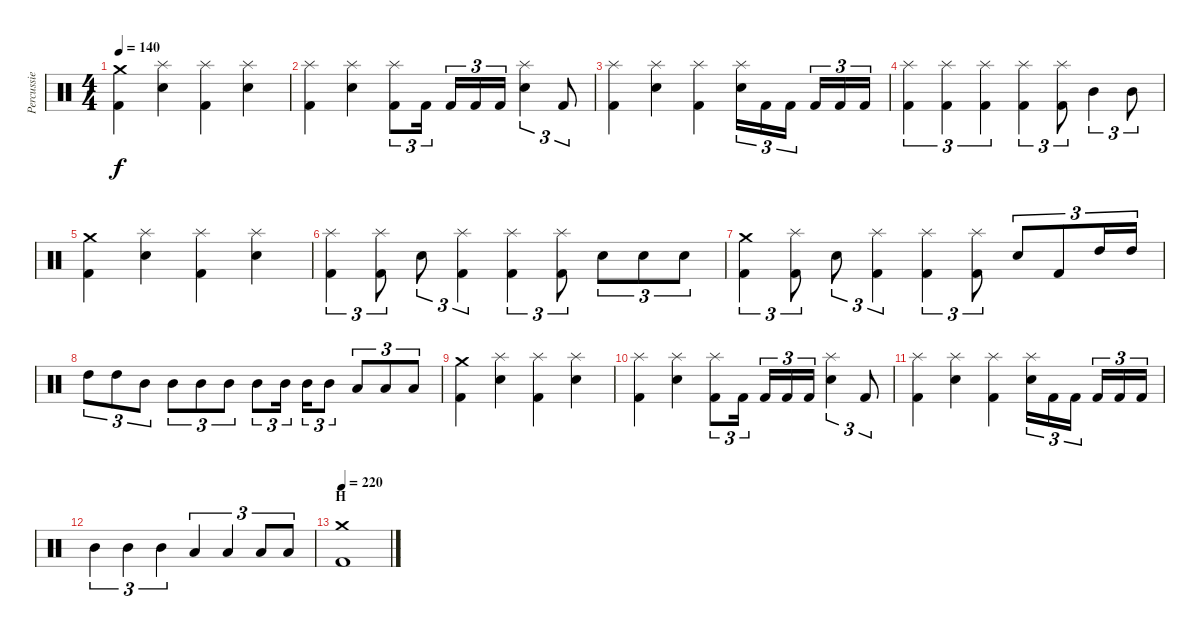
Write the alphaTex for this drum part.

\track ("Percussie" "Percussie") {instrument percussion}
\staff {score}
\articulation defaults
\ts (4 4)
\tempo 140
\clef neutral
\ks c
("Crash medium (hit)" "Kick (hit) 2").4{dy f} ("Splash (hit)" "Electric Snare (hit)").4 ("Splash (hit)" "Kick (hit) 2").4 ("Splash (hit)" "Electric Snare (hit)").4 |
("Splash (hit)" "Kick (hit) 2").4 ("Splash (hit)" "Electric Snare (hit)").4 ("Splash (hit)" "Kick (hit) 2").8{tu (3 2)} "Kick (hit) 2".16{tu (3 2)} "Kick (hit) 2".16{tu (3 2)} "Kick (hit) 2".16{tu (3 2)} "Kick (hit) 2".16{tu (3 2)} ("Splash (hit)" "Electric Snare (hit)").4{tu (3 2)} "Kick (hit) 2".8{tu (3 2)} |
("Splash (hit)" "Kick (hit) 2").4 ("Splash (hit)" "Electric Snare (hit)").4 ("Splash (hit)" "Kick (hit) 2").4 ("Splash (hit)" "Electric Snare (hit)").16{tu (3 2)} "Kick (hit) 2".16{tu (3 2)} "Kick (hit) 2".16{tu (3 2)} "Kick (hit) 2".16{tu (3 2)} "Kick (hit) 2".16{tu (3 2)} "Kick (hit) 2".16{tu (3 2)} |
("Splash (hit)" "Kick (hit) 2").4{tu (3 2)} ("Splash (hit)" "Kick (hit) 2").4{tu (3 2)} ("Splash (hit)" "Kick (hit) 2").4{tu (3 2)} ("Splash (hit)" "Kick (hit) 2").4{tu (3 2)} ("Splash (hit)" "Kick (hit) 2").8{tu (3 2)} "Mid Tom (hit)".4{tu (3 2)} "Mid Tom (hit)".8{tu (3 2)} |
("Crash medium (hit)" "Kick (hit) 2").4 ("Splash (hit)" "Electric Snare (hit)").4 ("Splash (hit)" "Kick (hit) 2").4 ("Splash (hit)" "Electric Snare (hit)").4 |
("Splash (hit)" "Kick (hit) 2").4{tu (3 2)} ("Splash (hit)" "Kick (hit) 2").8{tu (3 2)} "Electric Snare (hit)".8{tu (3 2)} ("Splash (hit)" "Kick (hit) 2").4{tu (3 2)} ("Splash (hit)" "Kick (hit) 2").4{tu (3 2)} ("Splash (hit)" "Kick (hit) 2").8{tu (3 2)} "Electric Snare (hit)".8{tu (3 2)} "Electric Snare (hit)".8{tu (3 2)} "Electric Snare (hit)".8{tu (3 2)} |
("Crash medium (hit)" "Kick (hit) 2").4{tu (3 2)} ("Splash (hit)" "Kick (hit) 2").8{tu (3 2)} "Electric Snare (hit)".8{tu (3 2)} ("Splash (hit)" "Kick (hit) 2").4{tu (3 2)} ("Splash (hit)" "Kick (hit) 2").4{tu (3 2)} ("Splash (hit)" "Kick (hit) 2").8{tu (3 2)} "Electric Snare (hit)".8{tu (3 2)} "Kick (hit) 2".8{tu (3 2)} "High Tom (hit)".16{tu (3 2)} "High Tom (hit)".16{tu (3 2)} |
"High Tom (hit)".8{tu (3 2)} "High Tom (hit)".8{tu (3 2)} "Mid Tom (hit)".8{tu (3 2)} "Mid Tom (hit)".8{tu (3 2)} "Mid Tom (hit)".8{tu (3 2)} "Mid Tom (hit)".8{tu (3 2)} "Mid Tom (hit)".8{tu (3 2)} "Mid Tom (hit)".16{tu (3 2)} "Mid Tom (hit)".16{tu (3 2)} "Mid Tom (hit)".8{tu (3 2)} "Low Tom (hit)".8{tu (3 2)} "Low Tom (hit)".8{tu (3 2)} "Low Tom (hit)".8{tu (3 2)} |
("Crash medium (hit)" "Kick (hit) 2").4 ("Splash (hit)" "Electric Snare (hit)").4 ("Splash (hit)" "Kick (hit) 2").4 ("Splash (hit)" "Electric Snare (hit)").4 |
("Splash (hit)" "Kick (hit) 2").4 ("Splash (hit)" "Electric Snare (hit)").4 ("Splash (hit)" "Kick (hit) 2").8{tu (3 2)} "Kick (hit) 2".16{tu (3 2)} "Kick (hit) 2".16{tu (3 2)} "Kick (hit) 2".16{tu (3 2)} "Kick (hit) 2".16{tu (3 2)} ("Splash (hit)" "Electric Snare (hit)").4{tu (3 2)} "Kick (hit) 2".8{tu (3 2)} |
("Splash (hit)" "Kick (hit) 2").4 ("Splash (hit)" "Electric Snare (hit)").4 ("Splash (hit)" "Kick (hit) 2").4 ("Splash (hit)" "Electric Snare (hit)").16{tu (3 2)} "Kick (hit) 2".16{tu (3 2)} "Kick (hit) 2".16{tu (3 2)} "Kick (hit) 2".16{tu (3 2)} "Kick (hit) 2".16{tu (3 2)} "Kick (hit) 2".16{tu (3 2)} |
"Mid Tom (hit)".4{tu (3 2)} "Mid Tom (hit)".4{tu (3 2)} "Mid Tom (hit)".4{tu (3 2)} "Low Tom (hit)".4{tu (3 2)} "Low Tom (hit)".4{tu (3 2)} "Low Tom (hit)".8{tu (3 2)} "Low Tom (hit)".8{tu (3 2)} |
\section ("" "H")
\tempo 220
("Crash medium (hit)" "Kick (hit) 2").1
